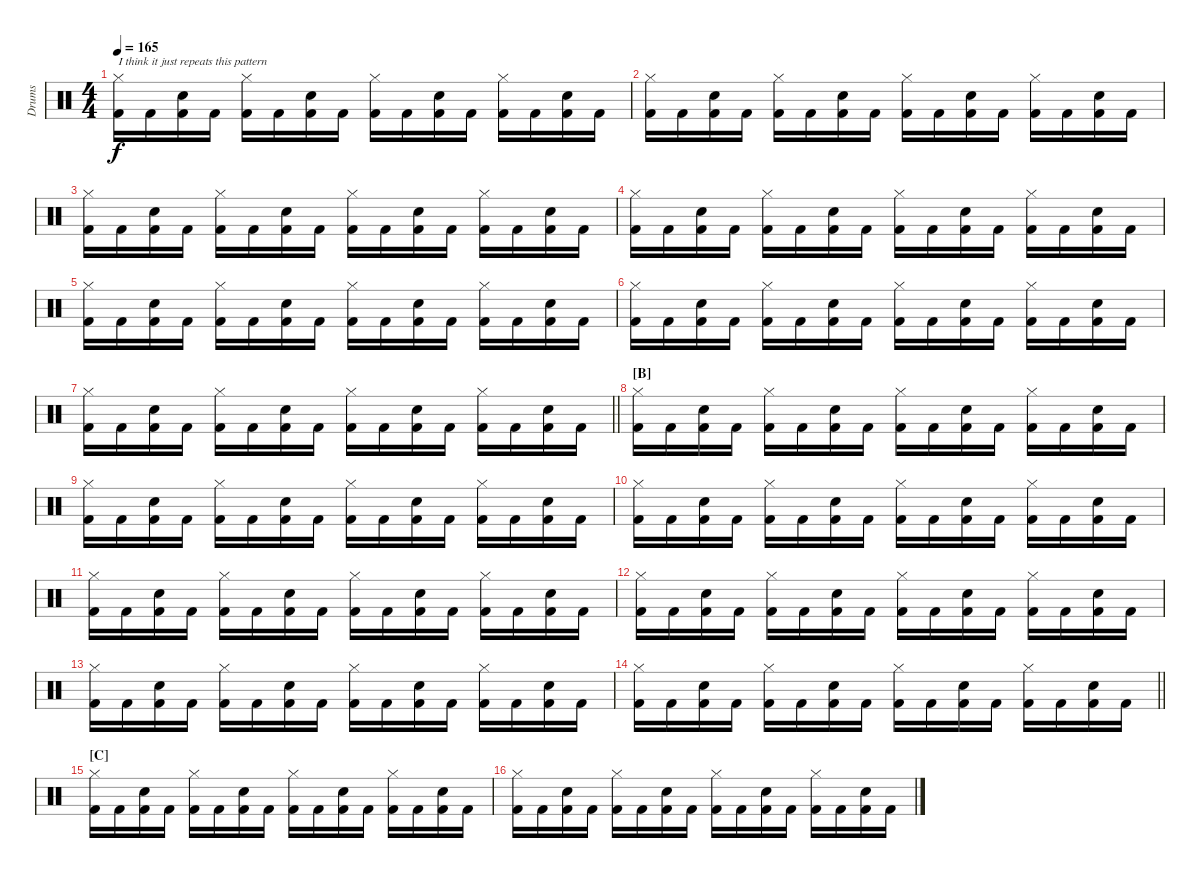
\track ("Drums" "Drums") {instrument percussion}
\staff {score}
\articulation defaults
\ts (4 4)
\tempo 165
\clef neutral
\ks c
("Hi-Hat (closed)" "Kick (hit) 2").16{txt "I think it just repeats this pattern" dy f} "Kick (hit) 2".16 ("Electric Snare (hit)" "Kick (hit) 2").16 "Kick (hit) 2".16 ("Hi-Hat (closed)" "Kick (hit) 2").16 "Kick (hit) 2".16 ("Electric Snare (hit)" "Kick (hit) 2").16 "Kick (hit) 2".16 ("Hi-Hat (closed)" "Kick (hit) 2").16 "Kick (hit) 2".16 ("Electric Snare (hit)" "Kick (hit) 2").16 "Kick (hit) 2".16 ("Hi-Hat (closed)" "Kick (hit) 2").16 "Kick (hit) 2".16 ("Electric Snare (hit)" "Kick (hit) 2").16 "Kick (hit) 2".16 |
("Hi-Hat (closed)" "Kick (hit) 2").16 "Kick (hit) 2".16 ("Electric Snare (hit)" "Kick (hit) 2").16 "Kick (hit) 2".16 ("Hi-Hat (closed)" "Kick (hit) 2").16 "Kick (hit) 2".16 ("Electric Snare (hit)" "Kick (hit) 2").16 "Kick (hit) 2".16 ("Hi-Hat (closed)" "Kick (hit) 2").16 "Kick (hit) 2".16 ("Electric Snare (hit)" "Kick (hit) 2").16 "Kick (hit) 2".16 ("Hi-Hat (closed)" "Kick (hit) 2").16 "Kick (hit) 2".16 ("Electric Snare (hit)" "Kick (hit) 2").16 "Kick (hit) 2".16 |
("Hi-Hat (closed)" "Kick (hit) 2").16 "Kick (hit) 2".16 ("Electric Snare (hit)" "Kick (hit) 2").16 "Kick (hit) 2".16 ("Hi-Hat (closed)" "Kick (hit) 2").16 "Kick (hit) 2".16 ("Electric Snare (hit)" "Kick (hit) 2").16 "Kick (hit) 2".16 ("Hi-Hat (closed)" "Kick (hit) 2").16 "Kick (hit) 2".16 ("Electric Snare (hit)" "Kick (hit) 2").16 "Kick (hit) 2".16 ("Hi-Hat (closed)" "Kick (hit) 2").16 "Kick (hit) 2".16 ("Electric Snare (hit)" "Kick (hit) 2").16 "Kick (hit) 2".16 |
("Hi-Hat (closed)" "Kick (hit) 2").16 "Kick (hit) 2".16 ("Electric Snare (hit)" "Kick (hit) 2").16 "Kick (hit) 2".16 ("Hi-Hat (closed)" "Kick (hit) 2").16 "Kick (hit) 2".16 ("Electric Snare (hit)" "Kick (hit) 2").16 "Kick (hit) 2".16 ("Hi-Hat (closed)" "Kick (hit) 2").16 "Kick (hit) 2".16 ("Electric Snare (hit)" "Kick (hit) 2").16 "Kick (hit) 2".16 ("Hi-Hat (closed)" "Kick (hit) 2").16 "Kick (hit) 2".16 ("Electric Snare (hit)" "Kick (hit) 2").16 "Kick (hit) 2".16 |
("Hi-Hat (closed)" "Kick (hit) 2").16 "Kick (hit) 2".16 ("Electric Snare (hit)" "Kick (hit) 2").16 "Kick (hit) 2".16 ("Hi-Hat (closed)" "Kick (hit) 2").16 "Kick (hit) 2".16 ("Electric Snare (hit)" "Kick (hit) 2").16 "Kick (hit) 2".16 ("Hi-Hat (closed)" "Kick (hit) 2").16 "Kick (hit) 2".16 ("Electric Snare (hit)" "Kick (hit) 2").16 "Kick (hit) 2".16 ("Hi-Hat (closed)" "Kick (hit) 2").16 "Kick (hit) 2".16 ("Electric Snare (hit)" "Kick (hit) 2").16 "Kick (hit) 2".16 |
("Hi-Hat (closed)" "Kick (hit) 2").16 "Kick (hit) 2".16 ("Electric Snare (hit)" "Kick (hit) 2").16 "Kick (hit) 2".16 ("Hi-Hat (closed)" "Kick (hit) 2").16 "Kick (hit) 2".16 ("Electric Snare (hit)" "Kick (hit) 2").16 "Kick (hit) 2".16 ("Hi-Hat (closed)" "Kick (hit) 2").16 "Kick (hit) 2".16 ("Electric Snare (hit)" "Kick (hit) 2").16 "Kick (hit) 2".16 ("Hi-Hat (closed)" "Kick (hit) 2").16 "Kick (hit) 2".16 ("Electric Snare (hit)" "Kick (hit) 2").16 "Kick (hit) 2".16 |
\barLineRight lightlight
("Hi-Hat (closed)" "Kick (hit) 2").16 "Kick (hit) 2".16 ("Electric Snare (hit)" "Kick (hit) 2").16 "Kick (hit) 2".16 ("Hi-Hat (closed)" "Kick (hit) 2").16 "Kick (hit) 2".16 ("Electric Snare (hit)" "Kick (hit) 2").16 "Kick (hit) 2".16 ("Hi-Hat (closed)" "Kick (hit) 2").16 "Kick (hit) 2".16 ("Electric Snare (hit)" "Kick (hit) 2").16 "Kick (hit) 2".16 ("Hi-Hat (closed)" "Kick (hit) 2").16 "Kick (hit) 2".16 ("Electric Snare (hit)" "Kick (hit) 2").16 "Kick (hit) 2".16 |
\section ("" "[B]")
("Hi-Hat (closed)" "Kick (hit) 2").16 "Kick (hit) 2".16 ("Electric Snare (hit)" "Kick (hit) 2").16 "Kick (hit) 2".16 ("Hi-Hat (closed)" "Kick (hit) 2").16 "Kick (hit) 2".16 ("Electric Snare (hit)" "Kick (hit) 2").16 "Kick (hit) 2".16 ("Hi-Hat (closed)" "Kick (hit) 2").16 "Kick (hit) 2".16 ("Electric Snare (hit)" "Kick (hit) 2").16 "Kick (hit) 2".16 ("Hi-Hat (closed)" "Kick (hit) 2").16 "Kick (hit) 2".16 ("Electric Snare (hit)" "Kick (hit) 2").16 "Kick (hit) 2".16 |
("Hi-Hat (closed)" "Kick (hit) 2").16 "Kick (hit) 2".16 ("Electric Snare (hit)" "Kick (hit) 2").16 "Kick (hit) 2".16 ("Hi-Hat (closed)" "Kick (hit) 2").16 "Kick (hit) 2".16 ("Electric Snare (hit)" "Kick (hit) 2").16 "Kick (hit) 2".16 ("Hi-Hat (closed)" "Kick (hit) 2").16 "Kick (hit) 2".16 ("Electric Snare (hit)" "Kick (hit) 2").16 "Kick (hit) 2".16 ("Hi-Hat (closed)" "Kick (hit) 2").16 "Kick (hit) 2".16 ("Electric Snare (hit)" "Kick (hit) 2").16 "Kick (hit) 2".16 |
("Hi-Hat (closed)" "Kick (hit) 2").16 "Kick (hit) 2".16 ("Electric Snare (hit)" "Kick (hit) 2").16 "Kick (hit) 2".16 ("Hi-Hat (closed)" "Kick (hit) 2").16 "Kick (hit) 2".16 ("Electric Snare (hit)" "Kick (hit) 2").16 "Kick (hit) 2".16 ("Hi-Hat (closed)" "Kick (hit) 2").16 "Kick (hit) 2".16 ("Electric Snare (hit)" "Kick (hit) 2").16 "Kick (hit) 2".16 ("Hi-Hat (closed)" "Kick (hit) 2").16 "Kick (hit) 2".16 ("Electric Snare (hit)" "Kick (hit) 2").16 "Kick (hit) 2".16 |
("Hi-Hat (closed)" "Kick (hit) 2").16 "Kick (hit) 2".16 ("Electric Snare (hit)" "Kick (hit) 2").16 "Kick (hit) 2".16 ("Hi-Hat (closed)" "Kick (hit) 2").16 "Kick (hit) 2".16 ("Electric Snare (hit)" "Kick (hit) 2").16 "Kick (hit) 2".16 ("Hi-Hat (closed)" "Kick (hit) 2").16 "Kick (hit) 2".16 ("Electric Snare (hit)" "Kick (hit) 2").16 "Kick (hit) 2".16 ("Hi-Hat (closed)" "Kick (hit) 2").16 "Kick (hit) 2".16 ("Electric Snare (hit)" "Kick (hit) 2").16 "Kick (hit) 2".16 |
("Hi-Hat (closed)" "Kick (hit) 2").16 "Kick (hit) 2".16 ("Electric Snare (hit)" "Kick (hit) 2").16 "Kick (hit) 2".16 ("Hi-Hat (closed)" "Kick (hit) 2").16 "Kick (hit) 2".16 ("Electric Snare (hit)" "Kick (hit) 2").16 "Kick (hit) 2".16 ("Hi-Hat (closed)" "Kick (hit) 2").16 "Kick (hit) 2".16 ("Electric Snare (hit)" "Kick (hit) 2").16 "Kick (hit) 2".16 ("Hi-Hat (closed)" "Kick (hit) 2").16 "Kick (hit) 2".16 ("Electric Snare (hit)" "Kick (hit) 2").16 "Kick (hit) 2".16 |
("Hi-Hat (closed)" "Kick (hit) 2").16 "Kick (hit) 2".16 ("Electric Snare (hit)" "Kick (hit) 2").16 "Kick (hit) 2".16 ("Hi-Hat (closed)" "Kick (hit) 2").16 "Kick (hit) 2".16 ("Electric Snare (hit)" "Kick (hit) 2").16 "Kick (hit) 2".16 ("Hi-Hat (closed)" "Kick (hit) 2").16 "Kick (hit) 2".16 ("Electric Snare (hit)" "Kick (hit) 2").16 "Kick (hit) 2".16 ("Hi-Hat (closed)" "Kick (hit) 2").16 "Kick (hit) 2".16 ("Electric Snare (hit)" "Kick (hit) 2").16 "Kick (hit) 2".16 |
\barLineRight lightlight
("Hi-Hat (closed)" "Kick (hit) 2").16 "Kick (hit) 2".16 ("Electric Snare (hit)" "Kick (hit) 2").16 "Kick (hit) 2".16 ("Hi-Hat (closed)" "Kick (hit) 2").16 "Kick (hit) 2".16 ("Electric Snare (hit)" "Kick (hit) 2").16 "Kick (hit) 2".16 ("Hi-Hat (closed)" "Kick (hit) 2").16 "Kick (hit) 2".16 ("Electric Snare (hit)" "Kick (hit) 2").16 "Kick (hit) 2".16 ("Hi-Hat (closed)" "Kick (hit) 2").16 "Kick (hit) 2".16 ("Electric Snare (hit)" "Kick (hit) 2").16 "Kick (hit) 2".16 |
\section ("" "[C]")
("Hi-Hat (closed)" "Kick (hit) 2").16 "Kick (hit) 2".16 ("Electric Snare (hit)" "Kick (hit) 2").16 "Kick (hit) 2".16 ("Hi-Hat (closed)" "Kick (hit) 2").16 "Kick (hit) 2".16 ("Electric Snare (hit)" "Kick (hit) 2").16 "Kick (hit) 2".16 ("Hi-Hat (closed)" "Kick (hit) 2").16 "Kick (hit) 2".16 ("Electric Snare (hit)" "Kick (hit) 2").16 "Kick (hit) 2".16 ("Hi-Hat (closed)" "Kick (hit) 2").16 "Kick (hit) 2".16 ("Electric Snare (hit)" "Kick (hit) 2").16 "Kick (hit) 2".16 |
("Hi-Hat (closed)" "Kick (hit) 2").16 "Kick (hit) 2".16 ("Electric Snare (hit)" "Kick (hit) 2").16 "Kick (hit) 2".16 ("Hi-Hat (closed)" "Kick (hit) 2").16 "Kick (hit) 2".16 ("Electric Snare (hit)" "Kick (hit) 2").16 "Kick (hit) 2".16 ("Hi-Hat (closed)" "Kick (hit) 2").16 "Kick (hit) 2".16 ("Electric Snare (hit)" "Kick (hit) 2").16 "Kick (hit) 2".16 ("Hi-Hat (closed)" "Kick (hit) 2").16 "Kick (hit) 2".16 ("Electric Snare (hit)" "Kick (hit) 2").16 "Kick (hit) 2".16
